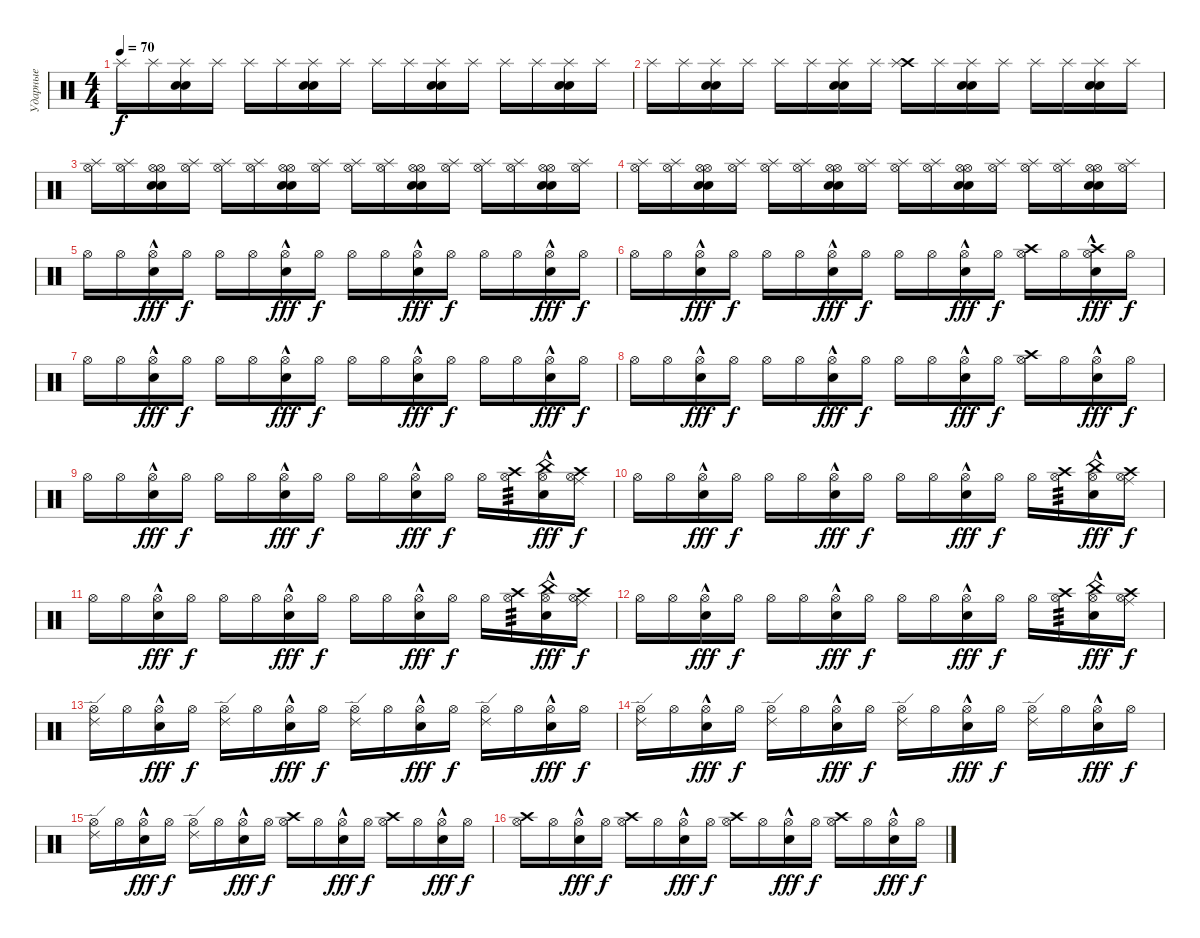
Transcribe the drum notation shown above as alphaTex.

\track ("Ударные" "Ударные") {instrument percussion}
\staff {score}
\articulation defaults
\ts (4 4)
\tempo 70
\clef neutral
\ks c "Splash (hit)".16{dy f} "Splash (hit)".16
("Splash (hit)" "Electric Snare (hit)" "Snare (hit) 2").16 "Splash (hit)".16 "Splash (hit)".16 "Splash (hit)".16 ("Splash (hit)" "Snare (hit) 2" "Electric Snare (hit)").16 "Splash (hit)".16 "Splash (hit)".16 "Splash (hit)".16 ("Splash (hit)" "Snare (hit) 2" "Electric Snare (hit)").16 "Splash (hit)".16 "Splash (hit)".16 "Splash (hit)".16 ("Splash (hit)" "Snare (hit) 2" "Electric Snare (hit)").16 "Splash (hit)".16 |
"Splash (hit)".16 "Splash (hit)".16 ("Splash (hit)" "Electric Snare (hit)" "Snare (hit) 2").16 "Splash (hit)".16 "Splash (hit)".16 "Splash (hit)".16 ("Splash (hit)" "Snare (hit) 2" "Electric Snare (hit)").16 "Splash (hit)".16 ("Crash high (hit)" "Splash (hit)").16 "Splash (hit)".16 ("Splash (hit)" "Snare (hit) 2" "Electric Snare (hit)").16 "Splash (hit)".16 "Splash (hit)".16 "Splash (hit)".16 ("Splash (hit)" "Snare (hit) 2" "Electric Snare (hit)").16 "Splash (hit)".16 |
("Hi-Hat (open)" "Splash (hit)").16 ("Hi-Hat (open)" "Splash (hit)").16 ("Hi-Hat (open)" "Hi-Hat (open)" "Electric Snare (hit)" "Snare (hit) 2").16 ("Hi-Hat (open)" "Splash (hit)").16 ("Hi-Hat (open)" "Splash (hit)").16 ("Hi-Hat (open)" "Splash (hit)").16 ("Hi-Hat (open)" "Hi-Hat (open)" "Snare (hit) 2" "Electric Snare (hit)").16 ("Hi-Hat (open)" "Splash (hit)").16 ("Hi-Hat (open)" "Splash (hit)").16 ("Hi-Hat (open)" "Splash (hit)").16 ("Hi-Hat (open)" "Hi-Hat (open)" "Snare (hit) 2" "Electric Snare (hit)").16 ("Hi-Hat (open)" "Splash (hit)").16 ("Hi-Hat (open)" "Splash (hit)").16 ("Hi-Hat (open)" "Splash (hit)").16 ("Hi-Hat (open)" "Hi-Hat (open)" "Snare (hit) 2" "Electric Snare (hit)").16 ("Hi-Hat (open)" "Splash (hit)").16 |
("Hi-Hat (open)" "Splash (hit)").16 ("Hi-Hat (open)" "Splash (hit)").16 ("Hi-Hat (open)" "Hi-Hat (open)" "Electric Snare (hit)" "Snare (hit) 2").16 ("Hi-Hat (open)" "Splash (hit)").16 ("Hi-Hat (open)" "Splash (hit)").16 ("Hi-Hat (open)" "Splash (hit)").16 ("Hi-Hat (open)" "Hi-Hat (open)" "Snare (hit) 2" "Electric Snare (hit)").16 ("Hi-Hat (open)" "Splash (hit)").16 ("Hi-Hat (open)" "Splash (hit)").16 ("Hi-Hat (open)" "Splash (hit)").16 ("Hi-Hat (open)" "Hi-Hat (open)" "Snare (hit) 2" "Electric Snare (hit)").16 ("Hi-Hat (open)" "Splash (hit)").16 ("Hi-Hat (open)" "Splash (hit)").16 ("Hi-Hat (open)" "Splash (hit)").16 ("Hi-Hat (open)" "Hi-Hat (open)" "Snare (hit) 2" "Electric Snare (hit)").16 ("Hi-Hat (open)" "Splash (hit)").16 |
"Hi-Hat (open)".16 "Hi-Hat (open)".16 ("Hi-Hat (open)" "Electric Snare (hit)"{hac}).16{dy fff} "Hi-Hat (open)".16{dy f} "Hi-Hat (open)".16 "Hi-Hat (open)".16 ("Hi-Hat (open)" "Electric Snare (hit)"{hac}).16{dy fff} "Hi-Hat (open)".16{dy f} "Hi-Hat (open)".16 "Hi-Hat (open)".16 ("Hi-Hat (open)" "Electric Snare (hit)"{hac}).16{dy fff} "Hi-Hat (open)".16{dy f} "Hi-Hat (open)".16 "Hi-Hat (open)".16 ("Hi-Hat (open)" "Electric Snare (hit)"{hac}).16{dy fff} "Hi-Hat (open)".16{dy f} |
"Hi-Hat (open)".16 "Hi-Hat (open)".16 ("Hi-Hat (open)" "Electric Snare (hit)"{hac}).16{dy fff} "Hi-Hat (open)".16{dy f} "Hi-Hat (open)".16 "Hi-Hat (open)".16 ("Hi-Hat (open)" "Electric Snare (hit)"{hac}).16{dy fff} "Hi-Hat (open)".16{dy f} "Hi-Hat (open)".16 "Hi-Hat (open)".16 ("Hi-Hat (open)" "Electric Snare (hit)"{hac}).16{dy fff} "Hi-Hat (open)".16{dy f} ("Crash high (hit)" "Hi-Hat (open)").16 "Hi-Hat (open)".16 ("Crash high (hit)" "Hi-Hat (open)" "Electric Snare (hit)"{hac}).16{dy fff} "Hi-Hat (open)".16{dy f} |
"Hi-Hat (open)".16 "Hi-Hat (open)".16 ("Hi-Hat (open)" "Electric Snare (hit)"{hac}).16{dy fff} "Hi-Hat (open)".16{dy f} "Hi-Hat (open)".16 "Hi-Hat (open)".16 ("Hi-Hat (open)" "Electric Snare (hit)"{hac}).16{dy fff} "Hi-Hat (open)".16{dy f} "Hi-Hat (open)".16 "Hi-Hat (open)".16 ("Hi-Hat (open)" "Electric Snare (hit)"{hac}).16{dy fff} "Hi-Hat (open)".16{dy f} "Hi-Hat (open)".16 "Hi-Hat (open)".16 ("Hi-Hat (open)" "Electric Snare (hit)"{hac}).16{dy fff} "Hi-Hat (open)".16{dy f} |
"Hi-Hat (open)".16 "Hi-Hat (open)".16 ("Hi-Hat (open)" "Electric Snare (hit)"{hac}).16{dy fff} "Hi-Hat (open)".16{dy f} "Hi-Hat (open)".16 "Hi-Hat (open)".16 ("Hi-Hat (open)" "Electric Snare (hit)"{hac}).16{dy fff} "Hi-Hat (open)".16{dy f} "Hi-Hat (open)".16 "Hi-Hat (open)".16 ("Hi-Hat (open)" "Electric Snare (hit)"{hac}).16{dy fff} "Hi-Hat (open)".16{dy f} ("Crash high (hit)" "Hi-Hat (open)").16 "Hi-Hat (open)".16 ("Hi-Hat (open)" "Electric Snare (hit)"{hac}).16{dy fff} "Hi-Hat (open)".16{dy f} |
"Hi-Hat (open)".16 "Hi-Hat (open)".16 ("Hi-Hat (open)" "Electric Snare (hit)"{hac}).16{dy fff} "Hi-Hat (open)".16{dy f} "Hi-Hat (open)".16 "Hi-Hat (open)".16 ("Hi-Hat (open)" "Electric Snare (hit)"{hac}).16{dy fff} "Hi-Hat (open)".16{dy f} "Hi-Hat (open)".16 "Hi-Hat (open)".16 ("Hi-Hat (open)" "Electric Snare (hit)"{hac}).16{dy fff} "Hi-Hat (open)".16{dy f} "Hi-Hat (open)".16 ("Crash high (hit)" "Hi-Hat (open)").16{tp 3} ("China (hit)" "Hi-Hat (open)" "Electric Snare (hit)"{hac}).16{dy fff} ("Crash high (hit)" "Ride (middle)" "Hi-Hat (open)").16{dy f} |
"Hi-Hat (open)".16 "Hi-Hat (open)".16 ("Hi-Hat (open)" "Electric Snare (hit)"{hac}).16{dy fff} "Hi-Hat (open)".16{dy f} "Hi-Hat (open)".16 "Hi-Hat (open)".16 ("Hi-Hat (open)" "Electric Snare (hit)"{hac}).16{dy fff} "Hi-Hat (open)".16{dy f} "Hi-Hat (open)".16 "Hi-Hat (open)".16 ("Hi-Hat (open)" "Electric Snare (hit)"{hac}).16{dy fff} "Hi-Hat (open)".16{dy f} "Hi-Hat (open)".16 ("Crash high (hit)" "Hi-Hat (open)").16{tp 3} ("China (hit)" "Hi-Hat (open)" "Electric Snare (hit)"{hac}).16{dy fff} ("Crash high (hit)" "Ride (middle)" "Hi-Hat (open)").16{dy f} |
"Hi-Hat (open)".16 "Hi-Hat (open)".16 ("Hi-Hat (open)" "Electric Snare (hit)"{hac}).16{dy fff} "Hi-Hat (open)".16{dy f} "Hi-Hat (open)".16 "Hi-Hat (open)".16 ("Hi-Hat (open)" "Electric Snare (hit)"{hac}).16{dy fff} "Hi-Hat (open)".16{dy f} "Hi-Hat (open)".16 "Hi-Hat (open)".16 ("Hi-Hat (open)" "Electric Snare (hit)"{hac}).16{dy fff} "Hi-Hat (open)".16{dy f} "Hi-Hat (open)".16 ("Crash high (hit)" "Hi-Hat (open)").16{tp 3} ("China (hit)" "Hi-Hat (open)" "Electric Snare (hit)"{hac}).16{dy fff} ("Crash high (hit)" "Ride (middle)" "Hi-Hat (open)").16{dy f} |
"Hi-Hat (open)".16 "Hi-Hat (open)".16 ("Hi-Hat (open)" "Electric Snare (hit)"{hac}).16{dy fff} "Hi-Hat (open)".16{dy f} "Hi-Hat (open)".16 "Hi-Hat (open)".16 ("Hi-Hat (open)" "Electric Snare (hit)"{hac}).16{dy fff} "Hi-Hat (open)".16{dy f} "Hi-Hat (open)".16 "Hi-Hat (open)".16 ("Hi-Hat (open)" "Electric Snare (hit)"{hac}).16{dy fff} "Hi-Hat (open)".16{dy f} "Hi-Hat (open)".16 ("Crash high (hit)" "Hi-Hat (open)").16{tp 3} ("China (hit)" "Hi-Hat (open)" "Electric Snare (hit)"{hac}).16{dy fff} ("Crash high (hit)" "Ride (middle)" "Hi-Hat (open)").16{dy f} |
("Ride (edge) 2" "Hi-Hat (open)").16 "Hi-Hat (open)".16 ("Hi-Hat (open)" "Electric Snare (hit)"{hac}).16{dy fff} "Hi-Hat (open)".16{dy f} ("Ride (edge) 2" "Hi-Hat (open)").16 "Hi-Hat (open)".16 ("Hi-Hat (open)" "Electric Snare (hit)"{hac}).16{dy fff} "Hi-Hat (open)".16{dy f} ("Ride (edge) 2" "Hi-Hat (open)").16 "Hi-Hat (open)".16 ("Hi-Hat (open)" "Electric Snare (hit)"{hac}).16{dy fff} "Hi-Hat (open)".16{dy f} ("Ride (edge) 2" "Hi-Hat (open)").16 "Hi-Hat (open)".16 ("Hi-Hat (open)" "Electric Snare (hit)"{hac}).16{dy fff} "Hi-Hat (open)".16{dy f} |
("Ride (edge) 2" "Hi-Hat (open)").16 "Hi-Hat (open)".16 ("Hi-Hat (open)" "Electric Snare (hit)"{hac}).16{dy fff} "Hi-Hat (open)".16{dy f} ("Ride (edge) 2" "Hi-Hat (open)").16 "Hi-Hat (open)".16 ("Hi-Hat (open)" "Electric Snare (hit)"{hac}).16{dy fff} "Hi-Hat (open)".16{dy f} ("Ride (edge) 2" "Hi-Hat (open)").16 "Hi-Hat (open)".16 ("Hi-Hat (open)" "Electric Snare (hit)"{hac}).16{dy fff} "Hi-Hat (open)".16{dy f} ("Ride (edge) 2" "Hi-Hat (open)").16 "Hi-Hat (open)".16 ("Hi-Hat (open)" "Electric Snare (hit)"{hac}).16{dy fff} "Hi-Hat (open)".16{dy f} |
("Ride (edge) 2" "Hi-Hat (open)").16 "Hi-Hat (open)".16 ("Hi-Hat (open)" "Electric Snare (hit)"{hac}).16{dy fff} "Hi-Hat (open)".16{dy f} ("Ride (edge) 2" "Hi-Hat (open)").16 "Hi-Hat (open)".16 ("Hi-Hat (open)" "Electric Snare (hit)"{hac}).16{dy fff} "Hi-Hat (open)".16{dy f} ("Crash high (hit)" "Hi-Hat (open)").16 "Hi-Hat (open)".16 ("Hi-Hat (open)" "Electric Snare (hit)"{hac}).16{dy fff} "Hi-Hat (open)".16{dy f} ("Crash high (hit)" "Hi-Hat (open)").16 "Hi-Hat (open)".16 ("Hi-Hat (open)" "Electric Snare (hit)"{hac}).16{dy fff} "Hi-Hat (open)".16{dy f} |
("Crash high (hit)" "Hi-Hat (open)").16 "Hi-Hat (open)".16 ("Hi-Hat (open)" "Electric Snare (hit)"{hac}).16{dy fff} "Hi-Hat (open)".16{dy f} ("Crash high (hit)" "Hi-Hat (open)").16 "Hi-Hat (open)".16 ("Hi-Hat (open)" "Electric Snare (hit)"{hac}).16{dy fff} "Hi-Hat (open)".16{dy f} ("Crash high (hit)" "Hi-Hat (open)").16 "Hi-Hat (open)".16 ("Hi-Hat (open)" "Electric Snare (hit)"{hac}).16{dy fff} "Hi-Hat (open)".16{dy f} ("Crash high (hit)" "Hi-Hat (open)").16 "Hi-Hat (open)".16 ("Hi-Hat (open)" "Electric Snare (hit)"{hac}).16{dy fff} "Hi-Hat (open)".16{dy f}
